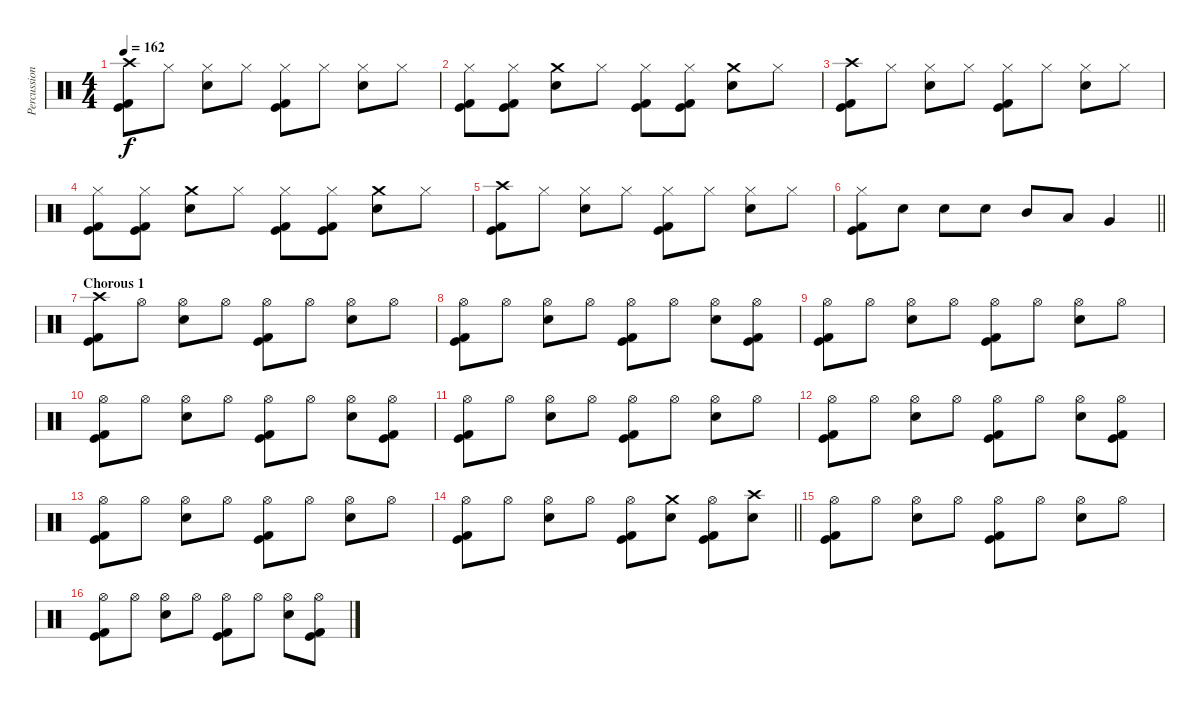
\track ("Percussion" "Percussion") {instrument percussion}
\staff {score}
\articulation defaults
\ts (4 4)
\tempo 162
\clef neutral
\ks c
("Crash high (hit)" "Kick (hit)" "Kick (hit) 2").8{dy f} "Hi-Hat (closed)".8 ("Hi-Hat (closed)" "Electric Snare (hit)").8 "Hi-Hat (closed)".8 ("Hi-Hat (closed)" "Kick (hit)" "Kick (hit) 2").8 "Hi-Hat (closed)".8 ("Hi-Hat (closed)" "Electric Snare (hit)").8 "Hi-Hat (closed)".8 |
("Hi-Hat (closed)" "Kick (hit)" "Kick (hit) 2").8 ("Hi-Hat (closed)" "Kick (hit)" "Kick (hit) 2").8 ("Crash medium (hit)" "Electric Snare (hit)").8 "Hi-Hat (closed)".8 ("Hi-Hat (closed)" "Kick (hit)" "Kick (hit) 2").8 ("Hi-Hat (closed)" "Kick (hit)" "Kick (hit) 2").8 ("Crash medium (hit)" "Electric Snare (hit)").8 "Hi-Hat (closed)".8 |
("Crash high (hit)" "Kick (hit)" "Kick (hit) 2").8 "Hi-Hat (closed)".8 ("Hi-Hat (closed)" "Electric Snare (hit)").8 "Hi-Hat (closed)".8 ("Hi-Hat (closed)" "Kick (hit)" "Kick (hit) 2").8 "Hi-Hat (closed)".8 ("Hi-Hat (closed)" "Electric Snare (hit)").8 "Hi-Hat (closed)".8 |
("Hi-Hat (closed)" "Kick (hit)" "Kick (hit) 2").8 ("Hi-Hat (closed)" "Kick (hit)" "Kick (hit) 2").8 ("Crash medium (hit)" "Electric Snare (hit)").8 "Hi-Hat (closed)".8 ("Hi-Hat (closed)" "Kick (hit)" "Kick (hit) 2").8 ("Hi-Hat (closed)" "Kick (hit)" "Kick (hit) 2").8 ("Crash medium (hit)" "Electric Snare (hit)").8 "Hi-Hat (closed)".8 |
("Crash high (hit)" "Kick (hit)" "Kick (hit) 2").8 "Hi-Hat (closed)".8 ("Hi-Hat (closed)" "Electric Snare (hit)").8 "Hi-Hat (closed)".8 ("Hi-Hat (closed)" "Kick (hit)" "Kick (hit) 2").8 "Hi-Hat (closed)".8 ("Hi-Hat (closed)" "Electric Snare (hit)").8 "Hi-Hat (closed)".8 |
\barLineRight lightlight
("Hi-Hat (closed)" "Kick (hit)" "Kick (hit) 2").8 "Electric Snare (hit)".8 "Electric Snare (hit)".8 "Electric Snare (hit)".8 "Mid Tom (hit)".8 "Low Tom (hit)".8 "Very Low Tom (hit)".4 |
\section ("" "Chorous 1")
("Crash high (hit)" "Kick (hit)" "Kick (hit) 2").8 "Hi-Hat (open)".8 ("Hi-Hat (open)" "Electric Snare (hit)").8 "Hi-Hat (open)".8 ("Hi-Hat (open)" "Kick (hit)" "Kick (hit) 2").8 "Hi-Hat (open)".8 ("Hi-Hat (open)" "Electric Snare (hit)").8 "Hi-Hat (open)".8 |
("Hi-Hat (open)" "Kick (hit)" "Kick (hit) 2").8 "Hi-Hat (open)".8 ("Hi-Hat (open)" "Electric Snare (hit)").8 "Hi-Hat (open)".8 ("Hi-Hat (open)" "Kick (hit)" "Kick (hit) 2").8 "Hi-Hat (open)".8 ("Hi-Hat (open)" "Electric Snare (hit)").8 ("Hi-Hat (open)" "Kick (hit)" "Kick (hit) 2").8 |
("Hi-Hat (open)" "Kick (hit)" "Kick (hit) 2").8 "Hi-Hat (open)".8 ("Hi-Hat (open)" "Electric Snare (hit)").8 "Hi-Hat (open)".8 ("Hi-Hat (open)" "Kick (hit)" "Kick (hit) 2").8 "Hi-Hat (open)".8 ("Hi-Hat (open)" "Electric Snare (hit)").8 "Hi-Hat (open)".8 |
("Hi-Hat (open)" "Kick (hit)" "Kick (hit) 2").8 "Hi-Hat (open)".8 ("Hi-Hat (open)" "Electric Snare (hit)").8 "Hi-Hat (open)".8 ("Hi-Hat (open)" "Kick (hit)" "Kick (hit) 2").8 "Hi-Hat (open)".8 ("Hi-Hat (open)" "Electric Snare (hit)").8 ("Hi-Hat (open)" "Kick (hit)" "Kick (hit) 2").8 |
("Hi-Hat (open)" "Kick (hit)" "Kick (hit) 2").8 "Hi-Hat (open)".8 ("Hi-Hat (open)" "Electric Snare (hit)").8 "Hi-Hat (open)".8 ("Hi-Hat (open)" "Kick (hit)" "Kick (hit) 2").8 "Hi-Hat (open)".8 ("Hi-Hat (open)" "Electric Snare (hit)").8 "Hi-Hat (open)".8 |
("Hi-Hat (open)" "Kick (hit)" "Kick (hit) 2").8 "Hi-Hat (open)".8 ("Hi-Hat (open)" "Electric Snare (hit)").8 "Hi-Hat (open)".8 ("Hi-Hat (open)" "Kick (hit)" "Kick (hit) 2").8 "Hi-Hat (open)".8 ("Hi-Hat (open)" "Electric Snare (hit)").8 ("Hi-Hat (open)" "Kick (hit)" "Kick (hit) 2").8 |
("Hi-Hat (open)" "Kick (hit)" "Kick (hit) 2").8 "Hi-Hat (open)".8 ("Hi-Hat (open)" "Electric Snare (hit)").8 "Hi-Hat (open)".8 ("Hi-Hat (open)" "Kick (hit)" "Kick (hit) 2").8 "Hi-Hat (open)".8 ("Hi-Hat (open)" "Electric Snare (hit)").8 "Hi-Hat (open)".8 |
\barLineRight lightlight
("Hi-Hat (open)" "Kick (hit)" "Kick (hit) 2").8 "Hi-Hat (open)".8 ("Hi-Hat (open)" "Electric Snare (hit)").8 "Hi-Hat (open)".8 ("Hi-Hat (open)" "Kick (hit)" "Kick (hit) 2").8 ("Crash medium (hit)" "Electric Snare (hit)").8 ("Hi-Hat (open)" "Kick (hit)" "Kick (hit) 2").8 ("Crash high (hit)" "Electric Snare (hit)").8 |
\section ("" "")
("Hi-Hat (open)" "Kick (hit)" "Kick (hit) 2").8 "Hi-Hat (open)".8 ("Hi-Hat (open)" "Electric Snare (hit)").8 "Hi-Hat (open)".8 ("Hi-Hat (open)" "Kick (hit)" "Kick (hit) 2").8 "Hi-Hat (open)".8 ("Hi-Hat (open)" "Electric Snare (hit)").8 "Hi-Hat (open)".8 |
("Hi-Hat (open)" "Kick (hit)" "Kick (hit) 2").8 "Hi-Hat (open)".8 ("Hi-Hat (open)" "Electric Snare (hit)").8 "Hi-Hat (open)".8 ("Hi-Hat (open)" "Kick (hit)" "Kick (hit) 2").8 "Hi-Hat (open)".8 ("Hi-Hat (open)" "Electric Snare (hit)").8 ("Hi-Hat (open)" "Kick (hit)" "Kick (hit) 2").8
